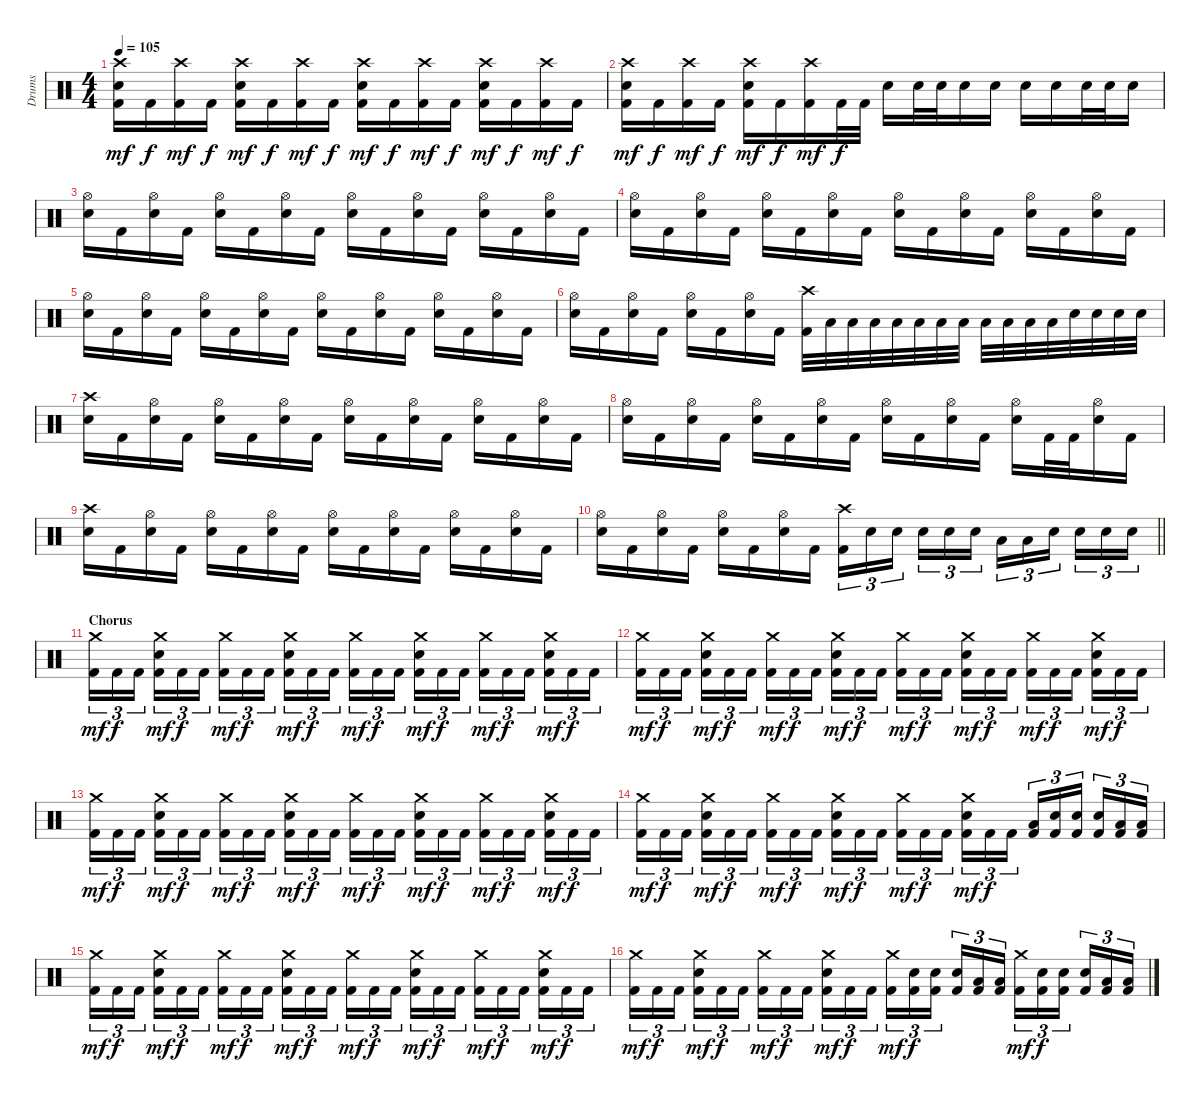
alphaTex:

\track ("Drums" "Drums") {instrument percussion}
\staff {score}
\articulation defaults
\ts (4 4)
\tempo 105
\clef neutral
\ks c
("Crash high (hit)" "Electric Snare (hit)" "Kick (hit) 2").16{dy mf} "Kick (hit) 2".16{dy f} ("Crash high (hit)" "Kick (hit) 2").16{dy mf} "Kick (hit) 2".16{dy f} ("Crash high (hit)" "Electric Snare (hit)" "Kick (hit) 2").16{dy mf} "Kick (hit) 2".16{dy f} ("Crash high (hit)" "Kick (hit) 2").16{dy mf} "Kick (hit) 2".16{dy f} ("Crash high (hit)" "Electric Snare (hit)" "Kick (hit) 2").16{dy mf} "Kick (hit) 2".16{dy f} ("Crash high (hit)" "Kick (hit) 2").16{dy mf} "Kick (hit) 2".16{dy f} ("Crash high (hit)" "Electric Snare (hit)" "Kick (hit) 2").16{dy mf} "Kick (hit) 2".16{dy f} ("Crash high (hit)" "Kick (hit) 2").16{dy mf} "Kick (hit) 2".16{dy f} |
("Crash high (hit)" "Electric Snare (hit)" "Kick (hit) 2").16{dy mf} "Kick (hit) 2".16{dy f} ("Crash high (hit)" "Kick (hit) 2").16{dy mf} "Kick (hit) 2".16{dy f} ("Crash high (hit)" "Electric Snare (hit)" "Kick (hit) 2").16{dy mf} "Kick (hit) 2".16{dy f} ("Crash high (hit)" "Kick (hit) 2").16{dy mf} "Kick (hit) 2".32{dy f} "Kick (hit) 2".32 "Electric Snare (hit)".16 "Electric Snare (hit)".32 "Electric Snare (hit)".32 "Electric Snare (hit)".16 "Electric Snare (hit)".16 "Electric Snare (hit)".16 "Electric Snare (hit)".16 "Electric Snare (hit)".32 "Electric Snare (hit)".32 "Electric Snare (hit)".16 |
("Hi-Hat (open)" "Electric Snare (hit)").16 "Kick (hit) 2".16 ("Hi-Hat (open)" "Electric Snare (hit)").16 "Kick (hit) 2".16 ("Hi-Hat (open)" "Electric Snare (hit)").16 "Kick (hit) 2".16 ("Hi-Hat (open)" "Electric Snare (hit)").16 "Kick (hit) 2".16 ("Hi-Hat (open)" "Electric Snare (hit)").16 "Kick (hit) 2".16 ("Hi-Hat (open)" "Electric Snare (hit)").16 "Kick (hit) 2".16 ("Hi-Hat (open)" "Electric Snare (hit)").16 "Kick (hit) 2".16 ("Hi-Hat (open)" "Electric Snare (hit)").16 "Kick (hit) 2".16 |
("Hi-Hat (open)" "Electric Snare (hit)").16 "Kick (hit) 2".16 ("Hi-Hat (open)" "Electric Snare (hit)").16 "Kick (hit) 2".16 ("Hi-Hat (open)" "Electric Snare (hit)").16 "Kick (hit) 2".16 ("Hi-Hat (open)" "Electric Snare (hit)").16 "Kick (hit) 2".16 ("Hi-Hat (open)" "Electric Snare (hit)").16 "Kick (hit) 2".16 ("Hi-Hat (open)" "Electric Snare (hit)").16 "Kick (hit) 2".16 ("Hi-Hat (open)" "Electric Snare (hit)").16 "Kick (hit) 2".16 ("Hi-Hat (open)" "Electric Snare (hit)").16 "Kick (hit) 2".16 |
("Hi-Hat (open)" "Electric Snare (hit)").16 "Kick (hit) 2".16 ("Hi-Hat (open)" "Electric Snare (hit)").16 "Kick (hit) 2".16 ("Hi-Hat (open)" "Electric Snare (hit)").16 "Kick (hit) 2".16 ("Hi-Hat (open)" "Electric Snare (hit)").16 "Kick (hit) 2".16 ("Hi-Hat (open)" "Electric Snare (hit)").16 "Kick (hit) 2".16 ("Hi-Hat (open)" "Electric Snare (hit)").16 "Kick (hit) 2".16 ("Hi-Hat (open)" "Electric Snare (hit)").16 "Kick (hit) 2".16 ("Hi-Hat (open)" "Electric Snare (hit)").16 "Kick (hit) 2".16 |
("Hi-Hat (open)" "Electric Snare (hit)").16 "Kick (hit) 2".16 ("Hi-Hat (open)" "Electric Snare (hit)").16 "Kick (hit) 2".16 ("Hi-Hat (open)" "Electric Snare (hit)").16 "Kick (hit) 2".16 ("Hi-Hat (open)" "Electric Snare (hit)").16 "Kick (hit) 2".16 ("Crash high (hit)" "Kick (hit) 2").32 "Low Tom (hit)".32 "Low Tom (hit)".32 "Low Tom (hit)".32 "Low Tom (hit)".32 "Low Tom (hit)".32 "Low Tom (hit)".32 "Low Tom (hit)".32 "Low Tom (hit)".32 "Low Tom (hit)".32 "Low Tom (hit)".32 "Low Tom (hit)".32 "Electric Snare (hit)".32 "Electric Snare (hit)".32 "Electric Snare (hit)".32 "Electric Snare (hit)".32 |
("Crash high (hit)" "Electric Snare (hit)").16 "Kick (hit) 2".16 ("Hi-Hat (open)" "Electric Snare (hit)").16 "Kick (hit) 2".16 ("Hi-Hat (open)" "Electric Snare (hit)").16 "Kick (hit) 2".16 ("Hi-Hat (open)" "Electric Snare (hit)").16 "Kick (hit) 2".16 ("Hi-Hat (open)" "Electric Snare (hit)").16 "Kick (hit) 2".16 ("Hi-Hat (open)" "Electric Snare (hit)").16 "Kick (hit) 2".16 ("Hi-Hat (open)" "Electric Snare (hit)").16 "Kick (hit) 2".16 ("Hi-Hat (open)" "Electric Snare (hit)").16 "Kick (hit) 2".16 |
("Hi-Hat (open)" "Electric Snare (hit)").16 "Kick (hit) 2".16 ("Hi-Hat (open)" "Electric Snare (hit)").16 "Kick (hit) 2".16 ("Hi-Hat (open)" "Electric Snare (hit)").16 "Kick (hit) 2".16 ("Hi-Hat (open)" "Electric Snare (hit)").16 "Kick (hit) 2".16 ("Hi-Hat (open)" "Electric Snare (hit)").16 "Kick (hit) 2".16 ("Hi-Hat (open)" "Electric Snare (hit)").16 "Kick (hit) 2".16 ("Hi-Hat (open)" "Electric Snare (hit)").16 "Kick (hit) 2".32 "Kick (hit) 2".32 ("Hi-Hat (open)" "Electric Snare (hit)").16 "Kick (hit) 2".16 |
("Crash high (hit)" "Electric Snare (hit)").16 "Kick (hit) 2".16 ("Hi-Hat (open)" "Electric Snare (hit)").16 "Kick (hit) 2".16 ("Hi-Hat (open)" "Electric Snare (hit)").16 "Kick (hit) 2".16 ("Hi-Hat (open)" "Electric Snare (hit)").16 "Kick (hit) 2".16 ("Hi-Hat (open)" "Electric Snare (hit)").16 "Kick (hit) 2".16 ("Hi-Hat (open)" "Electric Snare (hit)").16 "Kick (hit) 2".16 ("Hi-Hat (open)" "Electric Snare (hit)").16 "Kick (hit) 2".16 ("Hi-Hat (open)" "Electric Snare (hit)").16 "Kick (hit) 2".16 |
\barLineRight lightlight
("Hi-Hat (open)" "Electric Snare (hit)").16 "Kick (hit) 2".16 ("Hi-Hat (open)" "Electric Snare (hit)").16 "Kick (hit) 2".16 ("Hi-Hat (open)" "Electric Snare (hit)").16 "Kick (hit) 2".16 ("Hi-Hat (open)" "Electric Snare (hit)").16 "Kick (hit) 2".16 ("Crash high (hit)" "Kick (hit) 2").16{tu (3 2)} "Electric Snare (hit)".16{tu (3 2)} "Electric Snare (hit)".16{tu (3 2) beam splitsecondary} "Electric Snare (hit)".16{tu (3 2)} "Electric Snare (hit)".16{tu (3 2)} "Electric Snare (hit)".16{tu (3 2)} "Low Tom (hit)".16{tu (3 2)} "Low Tom (hit)".16{tu (3 2)} "Electric Snare (hit)".16{tu (3 2) beam splitsecondary} "Electric Snare (hit)".16{tu (3 2)} "Electric Snare (hit)".16{tu (3 2)} "Electric Snare (hit)".16{tu (3 2)} |
\section ("" "Chorus")
("Crash medium (hit)" "Kick (hit) 2").16{tu (3 2) dy mf} "Kick (hit) 2".16{tu (3 2) dy f} "Kick (hit) 2".16{tu (3 2) beam splitsecondary} ("Crash medium (hit)" "Electric Snare (hit)" "Kick (hit) 2").16{tu (3 2) dy mf} "Kick (hit) 2".16{tu (3 2) dy f} "Kick (hit) 2".16{tu (3 2)} ("Crash medium (hit)" "Kick (hit) 2").16{tu (3 2) dy mf} "Kick (hit) 2".16{tu (3 2) dy f} "Kick (hit) 2".16{tu (3 2) beam splitsecondary} ("Crash medium (hit)" "Electric Snare (hit)" "Kick (hit) 2").16{tu (3 2) dy mf} "Kick (hit) 2".16{tu (3 2) dy f} "Kick (hit) 2".16{tu (3 2)} ("Crash medium (hit)" "Kick (hit) 2").16{tu (3 2) dy mf} "Kick (hit) 2".16{tu (3 2) dy f} "Kick (hit) 2".16{tu (3 2) beam splitsecondary} ("Crash medium (hit)" "Electric Snare (hit)" "Kick (hit) 2").16{tu (3 2) dy mf} "Kick (hit) 2".16{tu (3 2) dy f} "Kick (hit) 2".16{tu (3 2)} ("Crash medium (hit)" "Kick (hit) 2").16{tu (3 2) dy mf} "Kick (hit) 2".16{tu (3 2) dy f} "Kick (hit) 2".16{tu (3 2) beam splitsecondary} ("Crash medium (hit)" "Electric Snare (hit)" "Kick (hit) 2").16{tu (3 2) dy mf} "Kick (hit) 2".16{tu (3 2) dy f} "Kick (hit) 2".16{tu (3 2)} |
("Crash medium (hit)" "Kick (hit) 2").16{tu (3 2) dy mf} "Kick (hit) 2".16{tu (3 2) dy f} "Kick (hit) 2".16{tu (3 2) beam splitsecondary} ("Crash medium (hit)" "Electric Snare (hit)" "Kick (hit) 2").16{tu (3 2) dy mf} "Kick (hit) 2".16{tu (3 2) dy f} "Kick (hit) 2".16{tu (3 2)} ("Crash medium (hit)" "Kick (hit) 2").16{tu (3 2) dy mf} "Kick (hit) 2".16{tu (3 2) dy f} "Kick (hit) 2".16{tu (3 2) beam splitsecondary} ("Crash medium (hit)" "Electric Snare (hit)" "Kick (hit) 2").16{tu (3 2) dy mf} "Kick (hit) 2".16{tu (3 2) dy f} "Kick (hit) 2".16{tu (3 2)} ("Crash medium (hit)" "Kick (hit) 2").16{tu (3 2) dy mf} "Kick (hit) 2".16{tu (3 2) dy f} "Kick (hit) 2".16{tu (3 2) beam splitsecondary} ("Crash medium (hit)" "Electric Snare (hit)" "Kick (hit) 2").16{tu (3 2) dy mf} "Kick (hit) 2".16{tu (3 2) dy f} "Kick (hit) 2".16{tu (3 2)} ("Crash medium (hit)" "Kick (hit) 2").16{tu (3 2) dy mf} "Kick (hit) 2".16{tu (3 2) dy f} "Kick (hit) 2".16{tu (3 2) beam splitsecondary} ("Crash medium (hit)" "Electric Snare (hit)" "Kick (hit) 2").16{tu (3 2) dy mf} "Kick (hit) 2".16{tu (3 2) dy f} "Kick (hit) 2".16{tu (3 2)} |
("Crash medium (hit)" "Kick (hit) 2").16{tu (3 2) dy mf} "Kick (hit) 2".16{tu (3 2) dy f} "Kick (hit) 2".16{tu (3 2) beam splitsecondary} ("Crash medium (hit)" "Electric Snare (hit)" "Kick (hit) 2").16{tu (3 2) dy mf} "Kick (hit) 2".16{tu (3 2) dy f} "Kick (hit) 2".16{tu (3 2)} ("Crash medium (hit)" "Kick (hit) 2").16{tu (3 2) dy mf} "Kick (hit) 2".16{tu (3 2) dy f} "Kick (hit) 2".16{tu (3 2) beam splitsecondary} ("Crash medium (hit)" "Electric Snare (hit)" "Kick (hit) 2").16{tu (3 2) dy mf} "Kick (hit) 2".16{tu (3 2) dy f} "Kick (hit) 2".16{tu (3 2)} ("Crash medium (hit)" "Kick (hit) 2").16{tu (3 2) dy mf} "Kick (hit) 2".16{tu (3 2) dy f} "Kick (hit) 2".16{tu (3 2) beam splitsecondary} ("Crash medium (hit)" "Electric Snare (hit)" "Kick (hit) 2").16{tu (3 2) dy mf} "Kick (hit) 2".16{tu (3 2) dy f} "Kick (hit) 2".16{tu (3 2)} ("Crash medium (hit)" "Kick (hit) 2").16{tu (3 2) dy mf} "Kick (hit) 2".16{tu (3 2) dy f} "Kick (hit) 2".16{tu (3 2) beam splitsecondary} ("Crash medium (hit)" "Electric Snare (hit)" "Kick (hit) 2").16{tu (3 2) dy mf} "Kick (hit) 2".16{tu (3 2) dy f} "Kick (hit) 2".16{tu (3 2)} |
("Crash medium (hit)" "Kick (hit) 2").16{tu (3 2) dy mf} "Kick (hit) 2".16{tu (3 2) dy f} "Kick (hit) 2".16{tu (3 2) beam splitsecondary} ("Crash medium (hit)" "Electric Snare (hit)" "Kick (hit) 2").16{tu (3 2) dy mf} "Kick (hit) 2".16{tu (3 2) dy f} "Kick (hit) 2".16{tu (3 2)} ("Crash medium (hit)" "Kick (hit) 2").16{tu (3 2) dy mf} "Kick (hit) 2".16{tu (3 2) dy f} "Kick (hit) 2".16{tu (3 2) beam splitsecondary} ("Crash medium (hit)" "Electric Snare (hit)" "Kick (hit) 2").16{tu (3 2) dy mf} "Kick (hit) 2".16{tu (3 2) dy f} "Kick (hit) 2".16{tu (3 2)} ("Crash medium (hit)" "Kick (hit) 2").16{tu (3 2) dy mf} "Kick (hit) 2".16{tu (3 2) dy f} "Kick (hit) 2".16{tu (3 2) beam splitsecondary} ("Crash medium (hit)" "Electric Snare (hit)" "Kick (hit) 2").16{tu (3 2) dy mf} "Kick (hit) 2".16{tu (3 2) dy f} "Kick (hit) 2".16{tu (3 2)} ("Low Tom (hit)" "Kick (hit) 2").16{tu (3 2)} ("Electric Snare (hit)" "Kick (hit) 2").16{tu (3 2)} ("Electric Snare (hit)" "Kick (hit) 2").16{tu (3 2) beam splitsecondary} ("Electric Snare (hit)" "Kick (hit) 2").16{tu (3 2)} ("Low Tom (hit)" "Kick (hit) 2").16{tu (3 2)} ("Low Tom (hit)" "Kick (hit) 2").16{tu (3 2)} |
("Crash medium (hit)" "Kick (hit) 2").16{tu (3 2) dy mf} "Kick (hit) 2".16{tu (3 2) dy f} "Kick (hit) 2".16{tu (3 2) beam splitsecondary} ("Crash medium (hit)" "Electric Snare (hit)" "Kick (hit) 2").16{tu (3 2) dy mf} "Kick (hit) 2".16{tu (3 2) dy f} "Kick (hit) 2".16{tu (3 2)} ("Crash medium (hit)" "Kick (hit) 2").16{tu (3 2) dy mf} "Kick (hit) 2".16{tu (3 2) dy f} "Kick (hit) 2".16{tu (3 2) beam splitsecondary} ("Crash medium (hit)" "Electric Snare (hit)" "Kick (hit) 2").16{tu (3 2) dy mf} "Kick (hit) 2".16{tu (3 2) dy f} "Kick (hit) 2".16{tu (3 2)} ("Crash medium (hit)" "Kick (hit) 2").16{tu (3 2) dy mf} "Kick (hit) 2".16{tu (3 2) dy f} "Kick (hit) 2".16{tu (3 2) beam splitsecondary} ("Crash medium (hit)" "Electric Snare (hit)" "Kick (hit) 2").16{tu (3 2) dy mf} "Kick (hit) 2".16{tu (3 2) dy f} "Kick (hit) 2".16{tu (3 2)} ("Crash medium (hit)" "Kick (hit) 2").16{tu (3 2) dy mf} "Kick (hit) 2".16{tu (3 2) dy f} "Kick (hit) 2".16{tu (3 2) beam splitsecondary} ("Crash medium (hit)" "Electric Snare (hit)" "Kick (hit) 2").16{tu (3 2) dy mf} "Kick (hit) 2".16{tu (3 2) dy f} "Kick (hit) 2".16{tu (3 2)} |
("Crash medium (hit)" "Kick (hit) 2").16{tu (3 2) dy mf} "Kick (hit) 2".16{tu (3 2) dy f} "Kick (hit) 2".16{tu (3 2) beam splitsecondary} ("Crash medium (hit)" "Electric Snare (hit)" "Kick (hit) 2").16{tu (3 2) dy mf} "Kick (hit) 2".16{tu (3 2) dy f} "Kick (hit) 2".16{tu (3 2)} ("Crash medium (hit)" "Kick (hit) 2").16{tu (3 2) dy mf} "Kick (hit) 2".16{tu (3 2) dy f} "Kick (hit) 2".16{tu (3 2) beam splitsecondary} ("Crash medium (hit)" "Electric Snare (hit)" "Kick (hit) 2").16{tu (3 2) dy mf} "Kick (hit) 2".16{tu (3 2) dy f} "Kick (hit) 2".16{tu (3 2)} ("Crash medium (hit)" "Kick (hit) 2").16{tu (3 2) dy mf} ("Electric Snare (hit)" "Kick (hit) 2").16{tu (3 2) dy f} ("Electric Snare (hit)" "Kick (hit) 2").16{tu (3 2) beam splitsecondary} ("Electric Snare (hit)" "Kick (hit) 2").16{tu (3 2)} ("Low Tom (hit)" "Kick (hit) 2").16{tu (3 2)} ("Low Tom (hit)" "Kick (hit) 2").16{tu (3 2)} ("Crash medium (hit)" "Kick (hit) 2").16{tu (3 2) dy mf} ("Electric Snare (hit)" "Kick (hit) 2").16{tu (3 2) dy f} ("Electric Snare (hit)" "Kick (hit) 2").16{tu (3 2) beam splitsecondary} ("Electric Snare (hit)" "Kick (hit) 2").16{tu (3 2)} ("Low Tom (hit)" "Kick (hit) 2").16{tu (3 2)} ("Low Tom (hit)" "Kick (hit) 2").16{tu (3 2)}
